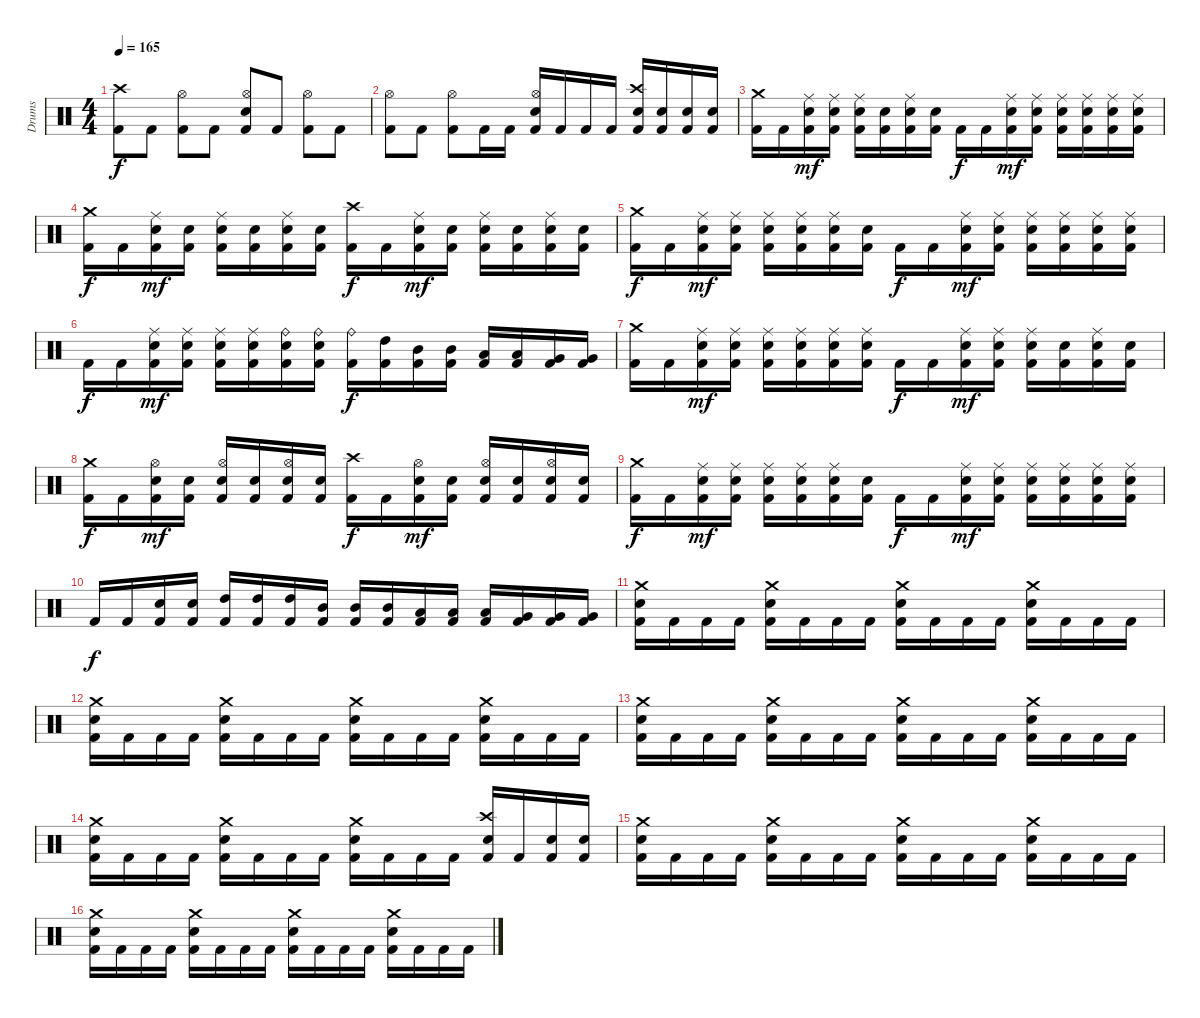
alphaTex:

\track ("Drums" "Drums") {instrument percussion}
\staff {score}
\articulation defaults
\ts (4 4)
\tempo 165
\clef neutral
\ks c
("Kick (hit) 2" "Crash high (hit)").8{dy f} "Kick (hit) 2".8 ("Kick (hit) 2" "Hi-Hat (open)").8 "Kick (hit) 2".8 ("Kick (hit) 2" "Electric Snare (hit)" "Hi-Hat (open)").8 "Kick (hit) 2".8 ("Kick (hit) 2" "Hi-Hat (open)").8 "Kick (hit) 2".8 |
("Kick (hit) 2" "Hi-Hat (open)").8 "Kick (hit) 2".8 ("Kick (hit) 2" "Hi-Hat (open)").8 "Kick (hit) 2".16 "Kick (hit) 2".16 ("Kick (hit) 2" "Electric Snare (hit)" "Hi-Hat (open)").16 "Kick (hit) 2".16 "Kick (hit) 2".16 "Kick (hit) 2".16 ("Kick (hit) 2" "Electric Snare (hit)" "Crash high (hit)").16 ("Kick (hit) 2" "Electric Snare (hit)").16 ("Kick (hit) 2" "Electric Snare (hit)").16 ("Kick (hit) 2" "Electric Snare (hit)").16 |
("Kick (hit) 2" "Crash medium (hit)").16 "Kick (hit) 2".16 ("Kick (hit) 2" "Electric Snare (hit)" "Ride (middle)").16{dy mf} ("Kick (hit) 2" "Electric Snare (hit)" "Ride (middle)").16 ("Kick (hit) 2" "Electric Snare (hit)" "Ride (middle)").16 ("Kick (hit) 2" "Electric Snare (hit)").16 ("Kick (hit) 2" "Electric Snare (hit)" "Ride (middle)").16 ("Kick (hit) 2" "Electric Snare (hit)").16 "Kick (hit) 2".16{dy f} "Kick (hit) 2".16 ("Kick (hit) 2" "Electric Snare (hit)" "Ride (middle)").16{dy mf} ("Kick (hit) 2" "Electric Snare (hit)" "Ride (middle)").16 ("Kick (hit) 2" "Electric Snare (hit)" "Ride (middle)").16 ("Kick (hit) 2" "Electric Snare (hit)" "Ride (middle)").16 ("Kick (hit) 2" "Electric Snare (hit)" "Ride (middle)").16 ("Kick (hit) 2" "Electric Snare (hit)" "Ride (middle)").16 |
("Kick (hit) 2" "Crash medium (hit)").16{dy f} "Kick (hit) 2".16 ("Kick (hit) 2" "Electric Snare (hit)" "Ride (middle)").16{dy mf} ("Kick (hit) 2" "Electric Snare (hit)").16 ("Kick (hit) 2" "Electric Snare (hit)" "Ride (middle)").16 ("Kick (hit) 2" "Electric Snare (hit)").16 ("Kick (hit) 2" "Electric Snare (hit)" "Ride (middle)").16 ("Kick (hit) 2" "Electric Snare (hit)").16 ("Kick (hit) 2" "Crash high (hit)").16{dy f} "Kick (hit) 2".16 ("Kick (hit) 2" "Electric Snare (hit)" "Ride (middle)").16{dy mf} ("Kick (hit) 2" "Electric Snare (hit)").16 ("Kick (hit) 2" "Electric Snare (hit)" "Ride (middle)").16 ("Kick (hit) 2" "Electric Snare (hit)").16 ("Kick (hit) 2" "Electric Snare (hit)" "Ride (middle)").16 ("Kick (hit) 2" "Electric Snare (hit)").16 |
("Kick (hit) 2" "Crash medium (hit)").16{dy f} "Kick (hit) 2".16 ("Kick (hit) 2" "Electric Snare (hit)" "Ride (middle)").16{dy mf} ("Kick (hit) 2" "Electric Snare (hit)" "Ride (middle)").16 ("Kick (hit) 2" "Electric Snare (hit)" "Ride (middle)").16 ("Kick (hit) 2" "Electric Snare (hit)" "Ride (middle)").16 ("Kick (hit) 2" "Electric Snare (hit)" "Ride (middle)").16 ("Kick (hit) 2" "Electric Snare (hit)").16 "Kick (hit) 2".16{dy f} "Kick (hit) 2".16 ("Kick (hit) 2" "Electric Snare (hit)" "Ride (middle)").16{dy mf} ("Kick (hit) 2" "Electric Snare (hit)" "Ride (middle)").16 ("Kick (hit) 2" "Electric Snare (hit)" "Ride (middle)").16 ("Kick (hit) 2" "Electric Snare (hit)" "Ride (middle)").16 ("Kick (hit) 2" "Electric Snare (hit)" "Ride (middle)").16 ("Kick (hit) 2" "Electric Snare (hit)" "Ride (middle)").16 |
"Kick (hit) 2".16{dy f} "Kick (hit) 2".16 ("Kick (hit) 2" "Electric Snare (hit)" "Ride (middle)").16{dy mf} ("Kick (hit) 2" "Electric Snare (hit)" "Ride (middle)").16 ("Kick (hit) 2" "Electric Snare (hit)" "Ride (middle)").16 ("Kick (hit) 2" "Electric Snare (hit)" "Ride (middle)").16 ("Kick (hit) 2" "Electric Snare (hit)" "Ride (bell)").16 ("Kick (hit) 2" "Electric Snare (hit)" "Ride (bell)").16 ("Kick (hit) 2" "Ride (bell)").16{dy f} ("Kick (hit) 2" "High Tom (hit)").16 ("Kick (hit) 2" "Mid Tom (hit)").16 ("Kick (hit) 2" "Mid Tom (hit)").16 ("Kick (hit) 2" "Low Tom (hit)").16 ("Kick (hit) 2" "Low Tom (hit)").16 ("Kick (hit) 2" "Very Low Tom (hit)").16 ("Kick (hit) 2" "Very Low Tom (hit)").16 |
("Kick (hit) 2" "Crash medium (hit)").16 "Kick (hit) 2".16 ("Kick (hit) 2" "Electric Snare (hit)" "Ride (middle)").16{dy mf} ("Kick (hit) 2" "Electric Snare (hit)" "Ride (middle)").16 ("Kick (hit) 2" "Electric Snare (hit)" "Ride (middle)").16 ("Kick (hit) 2" "Electric Snare (hit)" "Ride (middle)").16 ("Kick (hit) 2" "Electric Snare (hit)" "Ride (middle)").16 ("Kick (hit) 2" "Electric Snare (hit)" "Ride (middle)").16 "Kick (hit) 2".16{dy f} "Kick (hit) 2".16 ("Kick (hit) 2" "Electric Snare (hit)" "Ride (middle)").16{dy mf} ("Kick (hit) 2" "Electric Snare (hit)" "Ride (middle)").16 ("Kick (hit) 2" "Electric Snare (hit)" "Ride (middle)").16 ("Kick (hit) 2" "Electric Snare (hit)").16 ("Kick (hit) 2" "Electric Snare (hit)" "Ride (middle)").16 ("Kick (hit) 2" "Electric Snare (hit)").16 |
("Kick (hit) 2" "Crash medium (hit)").16{dy f} "Kick (hit) 2".16 ("Kick (hit) 2" "Electric Snare (hit)" "Hi-Hat (open)").16{dy mf} ("Kick (hit) 2" "Electric Snare (hit)").16 ("Kick (hit) 2" "Electric Snare (hit)" "Hi-Hat (open)").16 ("Kick (hit) 2" "Electric Snare (hit)").16 ("Kick (hit) 2" "Electric Snare (hit)" "Hi-Hat (open)").16 ("Kick (hit) 2" "Electric Snare (hit)").16 ("Kick (hit) 2" "Crash high (hit)").16{dy f} "Kick (hit) 2".16 ("Kick (hit) 2" "Electric Snare (hit)" "Hi-Hat (open)").16{dy mf} ("Kick (hit) 2" "Electric Snare (hit)").16 ("Kick (hit) 2" "Electric Snare (hit)" "Hi-Hat (open)").16 ("Kick (hit) 2" "Electric Snare (hit)").16 ("Kick (hit) 2" "Electric Snare (hit)" "Hi-Hat (open)").16 ("Kick (hit) 2" "Electric Snare (hit)").16 |
("Kick (hit) 2" "Crash medium (hit)").16{dy f} "Kick (hit) 2".16 ("Kick (hit) 2" "Electric Snare (hit)" "Ride (middle)").16{dy mf} ("Kick (hit) 2" "Electric Snare (hit)" "Ride (middle)").16 ("Kick (hit) 2" "Electric Snare (hit)" "Ride (middle)").16 ("Kick (hit) 2" "Electric Snare (hit)" "Ride (middle)").16 ("Kick (hit) 2" "Electric Snare (hit)" "Ride (middle)").16 ("Kick (hit) 2" "Electric Snare (hit)").16 "Kick (hit) 2".16{dy f} "Kick (hit) 2".16 ("Kick (hit) 2" "Electric Snare (hit)" "Ride (middle)").16{dy mf} ("Kick (hit) 2" "Electric Snare (hit)" "Ride (middle)").16 ("Kick (hit) 2" "Electric Snare (hit)" "Ride (middle)").16 ("Kick (hit) 2" "Electric Snare (hit)" "Ride (middle)").16 ("Kick (hit) 2" "Electric Snare (hit)" "Ride (middle)").16 ("Kick (hit) 2" "Electric Snare (hit)" "Ride (middle)").16 |
"Kick (hit) 2".16{dy f} "Kick (hit) 2".16 ("Kick (hit) 2" "Electric Snare (hit)").16 ("Kick (hit) 2" "Electric Snare (hit)").16 ("Kick (hit) 2" "High Tom (hit)").16 ("Kick (hit) 2" "High Tom (hit)").16 ("Kick (hit) 2" "High Tom (hit)").16 ("Kick (hit) 2" "Mid Tom (hit)").16 ("Kick (hit) 2" "Mid Tom (hit)").16 ("Kick (hit) 2" "Mid Tom (hit)").16 ("Kick (hit) 2" "Low Tom (hit)").16 ("Kick (hit) 2" "Low Tom (hit)").16 ("Kick (hit) 2" "Low Tom (hit)").16 ("Kick (hit) 2" "Very Low Tom (hit)").16 ("Kick (hit) 2" "Very Low Tom (hit)").16 ("Kick (hit) 2" "Very Low Tom (hit)").16 |
("Kick (hit) 2" "Electric Snare (hit)" "Crash medium (hit)").16 "Kick (hit) 2".16 "Kick (hit) 2".16 "Kick (hit) 2".16 ("Kick (hit) 2" "Electric Snare (hit)" "Crash medium (hit)").16 "Kick (hit) 2".16 "Kick (hit) 2".16 "Kick (hit) 2".16 ("Kick (hit) 2" "Electric Snare (hit)" "Crash medium (hit)").16 "Kick (hit) 2".16 "Kick (hit) 2".16 "Kick (hit) 2".16 ("Kick (hit) 2" "Electric Snare (hit)" "Crash medium (hit)").16 "Kick (hit) 2".16 "Kick (hit) 2".16 "Kick (hit) 2".16 |
("Kick (hit) 2" "Electric Snare (hit)" "Crash medium (hit)").16 "Kick (hit) 2".16 "Kick (hit) 2".16 "Kick (hit) 2".16 ("Kick (hit) 2" "Electric Snare (hit)" "Crash medium (hit)").16 "Kick (hit) 2".16 "Kick (hit) 2".16 "Kick (hit) 2".16 ("Kick (hit) 2" "Electric Snare (hit)" "Crash medium (hit)").16 "Kick (hit) 2".16 "Kick (hit) 2".16 "Kick (hit) 2".16 ("Kick (hit) 2" "Electric Snare (hit)" "Crash medium (hit)").16 "Kick (hit) 2".16 "Kick (hit) 2".16 "Kick (hit) 2".16 |
("Kick (hit) 2" "Electric Snare (hit)" "Crash medium (hit)").16 "Kick (hit) 2".16 "Kick (hit) 2".16 "Kick (hit) 2".16 ("Kick (hit) 2" "Electric Snare (hit)" "Crash medium (hit)").16 "Kick (hit) 2".16 "Kick (hit) 2".16 "Kick (hit) 2".16 ("Kick (hit) 2" "Electric Snare (hit)" "Crash medium (hit)").16 "Kick (hit) 2".16 "Kick (hit) 2".16 "Kick (hit) 2".16 ("Kick (hit) 2" "Electric Snare (hit)" "Crash medium (hit)").16 "Kick (hit) 2".16 "Kick (hit) 2".16 "Kick (hit) 2".16 |
("Kick (hit) 2" "Electric Snare (hit)" "Crash medium (hit)").16 "Kick (hit) 2".16 "Kick (hit) 2".16 "Kick (hit) 2".16 ("Kick (hit) 2" "Electric Snare (hit)" "Crash medium (hit)").16 "Kick (hit) 2".16 "Kick (hit) 2".16 "Kick (hit) 2".16 ("Kick (hit) 2" "Electric Snare (hit)" "Crash medium (hit)").16 "Kick (hit) 2".16 "Kick (hit) 2".16 "Kick (hit) 2".16 ("Kick (hit) 2" "Electric Snare (hit)" "Crash high (hit)").16 "Kick (hit) 2".16 ("Kick (hit) 2" "Electric Snare (hit)").16 ("Kick (hit) 2" "Electric Snare (hit)").16 |
("Kick (hit) 2" "Electric Snare (hit)" "Crash medium (hit)").16 "Kick (hit) 2".16 "Kick (hit) 2".16 "Kick (hit) 2".16 ("Kick (hit) 2" "Electric Snare (hit)" "Crash medium (hit)").16 "Kick (hit) 2".16 "Kick (hit) 2".16 "Kick (hit) 2".16 ("Kick (hit) 2" "Electric Snare (hit)" "Crash medium (hit)").16 "Kick (hit) 2".16 "Kick (hit) 2".16 "Kick (hit) 2".16 ("Kick (hit) 2" "Electric Snare (hit)" "Crash medium (hit)").16 "Kick (hit) 2".16 "Kick (hit) 2".16 "Kick (hit) 2".16 |
("Kick (hit) 2" "Electric Snare (hit)" "Crash medium (hit)").16 "Kick (hit) 2".16 "Kick (hit) 2".16 "Kick (hit) 2".16 ("Kick (hit) 2" "Electric Snare (hit)" "Crash medium (hit)").16 "Kick (hit) 2".16 "Kick (hit) 2".16 "Kick (hit) 2".16 ("Kick (hit) 2" "Electric Snare (hit)" "Crash medium (hit)").16 "Kick (hit) 2".16 "Kick (hit) 2".16 "Kick (hit) 2".16 ("Kick (hit) 2" "Electric Snare (hit)" "Crash medium (hit)").16 "Kick (hit) 2".16 "Kick (hit) 2".16 "Kick (hit) 2".16
